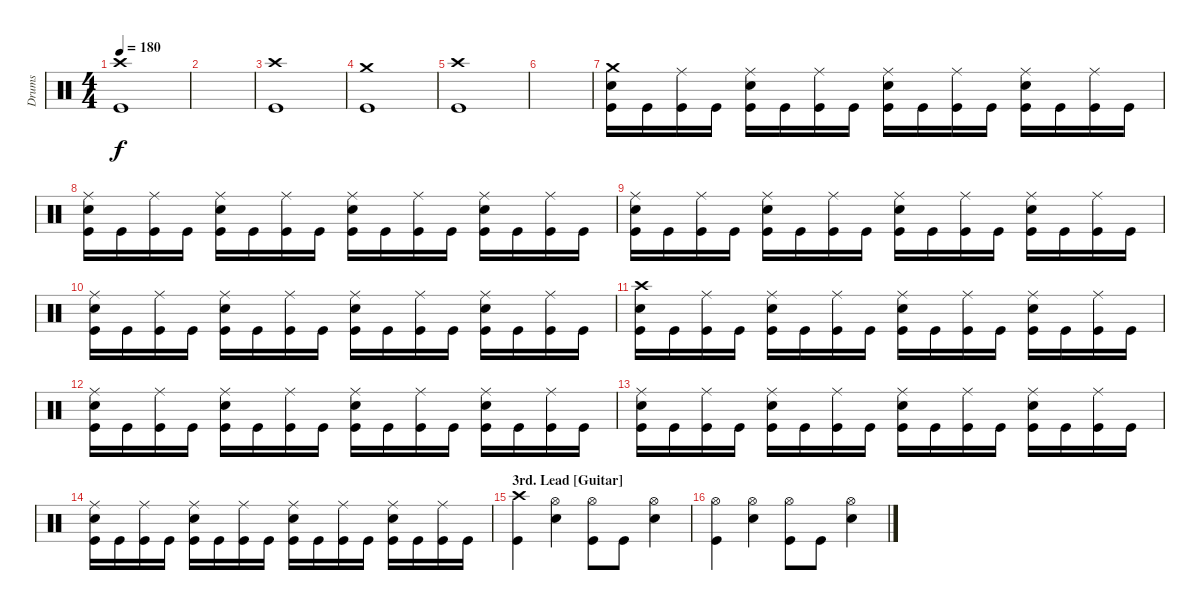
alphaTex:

\track ("Drums" "Drums") {instrument percussion}
\staff {score}
\articulation defaults
\ts (4 4)
\tempo 180
\clef neutral
\ks c
("Crash high (hit)" "Kick (hit)").1{dy f} |
|
("Crash high (hit)" "Kick (hit)").1 |
("Crash medium (hit)" "Kick (hit)").1 |
("Crash high (hit)" "Kick (hit)").1 |
|
("Crash medium (hit)" "Electric Snare (hit)" "Kick (hit)").16 "Kick (hit)".16 ("Ride (middle)" "Kick (hit)").16 "Kick (hit)".16 ("Ride (middle)" "Electric Snare (hit)" "Kick (hit)").16 "Kick (hit)".16 ("Ride (middle)" "Kick (hit)").16 "Kick (hit)".16 ("Ride (middle)" "Electric Snare (hit)" "Kick (hit)").16 "Kick (hit)".16 ("Ride (middle)" "Kick (hit)").16 "Kick (hit)".16 ("Ride (middle)" "Electric Snare (hit)" "Kick (hit)").16 "Kick (hit)".16 ("Ride (middle)" "Kick (hit)").16 "Kick (hit)".16 |
("Ride (middle)" "Electric Snare (hit)" "Kick (hit)").16 "Kick (hit)".16 ("Ride (middle)" "Kick (hit)").16 "Kick (hit)".16 ("Ride (middle)" "Electric Snare (hit)" "Kick (hit)").16 "Kick (hit)".16 ("Ride (middle)" "Kick (hit)").16 "Kick (hit)".16 ("Ride (middle)" "Electric Snare (hit)" "Kick (hit)").16 "Kick (hit)".16 ("Ride (middle)" "Kick (hit)").16 "Kick (hit)".16 ("Ride (middle)" "Electric Snare (hit)" "Kick (hit)").16 "Kick (hit)".16 ("Ride (middle)" "Kick (hit)").16 "Kick (hit)".16 |
("Ride (middle)" "Electric Snare (hit)" "Kick (hit)").16 "Kick (hit)".16 ("Ride (middle)" "Kick (hit)").16 "Kick (hit)".16 ("Ride (middle)" "Electric Snare (hit)" "Kick (hit)").16 "Kick (hit)".16 ("Ride (middle)" "Kick (hit)").16 "Kick (hit)".16 ("Ride (middle)" "Electric Snare (hit)" "Kick (hit)").16 "Kick (hit)".16 ("Ride (middle)" "Kick (hit)").16 "Kick (hit)".16 ("Ride (middle)" "Electric Snare (hit)" "Kick (hit)").16 "Kick (hit)".16 ("Ride (middle)" "Kick (hit)").16 "Kick (hit)".16 |
("Ride (middle)" "Electric Snare (hit)" "Kick (hit)").16 "Kick (hit)".16 ("Ride (middle)" "Kick (hit)").16 "Kick (hit)".16 ("Ride (middle)" "Electric Snare (hit)" "Kick (hit)").16 "Kick (hit)".16 ("Ride (middle)" "Kick (hit)").16 "Kick (hit)".16 ("Ride (middle)" "Electric Snare (hit)" "Kick (hit)").16 "Kick (hit)".16 ("Ride (middle)" "Kick (hit)").16 "Kick (hit)".16 ("Ride (middle)" "Electric Snare (hit)" "Kick (hit)").16 "Kick (hit)".16 ("Ride (middle)" "Kick (hit)").16 "Kick (hit)".16 |
("Crash high (hit)" "Electric Snare (hit)" "Kick (hit)").16 "Kick (hit)".16 ("Ride (middle)" "Kick (hit)").16 "Kick (hit)".16 ("Ride (middle)" "Electric Snare (hit)" "Kick (hit)").16 "Kick (hit)".16 ("Ride (middle)" "Kick (hit)").16 "Kick (hit)".16 ("Ride (middle)" "Electric Snare (hit)" "Kick (hit)").16 "Kick (hit)".16 ("Ride (middle)" "Kick (hit)").16 "Kick (hit)".16 ("Ride (middle)" "Electric Snare (hit)" "Kick (hit)").16 "Kick (hit)".16 ("Ride (middle)" "Kick (hit)").16 "Kick (hit)".16 |
("Ride (middle)" "Electric Snare (hit)" "Kick (hit)").16 "Kick (hit)".16 ("Ride (middle)" "Kick (hit)").16 "Kick (hit)".16 ("Ride (middle)" "Electric Snare (hit)" "Kick (hit)").16 "Kick (hit)".16 ("Ride (middle)" "Kick (hit)").16 "Kick (hit)".16 ("Ride (middle)" "Electric Snare (hit)" "Kick (hit)").16 "Kick (hit)".16 ("Ride (middle)" "Kick (hit)").16 "Kick (hit)".16 ("Ride (middle)" "Electric Snare (hit)" "Kick (hit)").16 "Kick (hit)".16 ("Ride (middle)" "Kick (hit)").16 "Kick (hit)".16 |
("Ride (middle)" "Electric Snare (hit)" "Kick (hit)").16 "Kick (hit)".16 ("Ride (middle)" "Kick (hit)").16 "Kick (hit)".16 ("Ride (middle)" "Electric Snare (hit)" "Kick (hit)").16 "Kick (hit)".16 ("Ride (middle)" "Kick (hit)").16 "Kick (hit)".16 ("Ride (middle)" "Electric Snare (hit)" "Kick (hit)").16 "Kick (hit)".16 ("Ride (middle)" "Kick (hit)").16 "Kick (hit)".16 ("Ride (middle)" "Electric Snare (hit)" "Kick (hit)").16 "Kick (hit)".16 ("Ride (middle)" "Kick (hit)").16 "Kick (hit)".16 |
("Ride (middle)" "Electric Snare (hit)" "Kick (hit)").16 "Kick (hit)".16 ("Ride (middle)" "Kick (hit)").16 "Kick (hit)".16 ("Ride (middle)" "Electric Snare (hit)" "Kick (hit)").16 "Kick (hit)".16 ("Ride (middle)" "Kick (hit)").16 "Kick (hit)".16 ("Ride (middle)" "Electric Snare (hit)" "Kick (hit)").16 "Kick (hit)".16 ("Ride (middle)" "Kick (hit)").16 "Kick (hit)".16 ("Ride (middle)" "Electric Snare (hit)" "Kick (hit)").16 "Kick (hit)".16 ("Ride (middle)" "Kick (hit)").16 "Kick (hit)".16 |
\section ("" "3rd. Lead [Guitar]")
("Crash high (hit)" "Kick (hit)").4 ("Hi-Hat (open)" "Electric Snare (hit)").4 ("Hi-Hat (open)" "Kick (hit)").8 "Kick (hit)".8 ("Hi-Hat (open)" "Electric Snare (hit)").4 |
("Hi-Hat (open)" "Kick (hit)").4 ("Hi-Hat (open)" "Electric Snare (hit)").4 ("Hi-Hat (open)" "Kick (hit)").8 "Kick (hit)".8 ("Hi-Hat (open)" "Electric Snare (hit)").4
